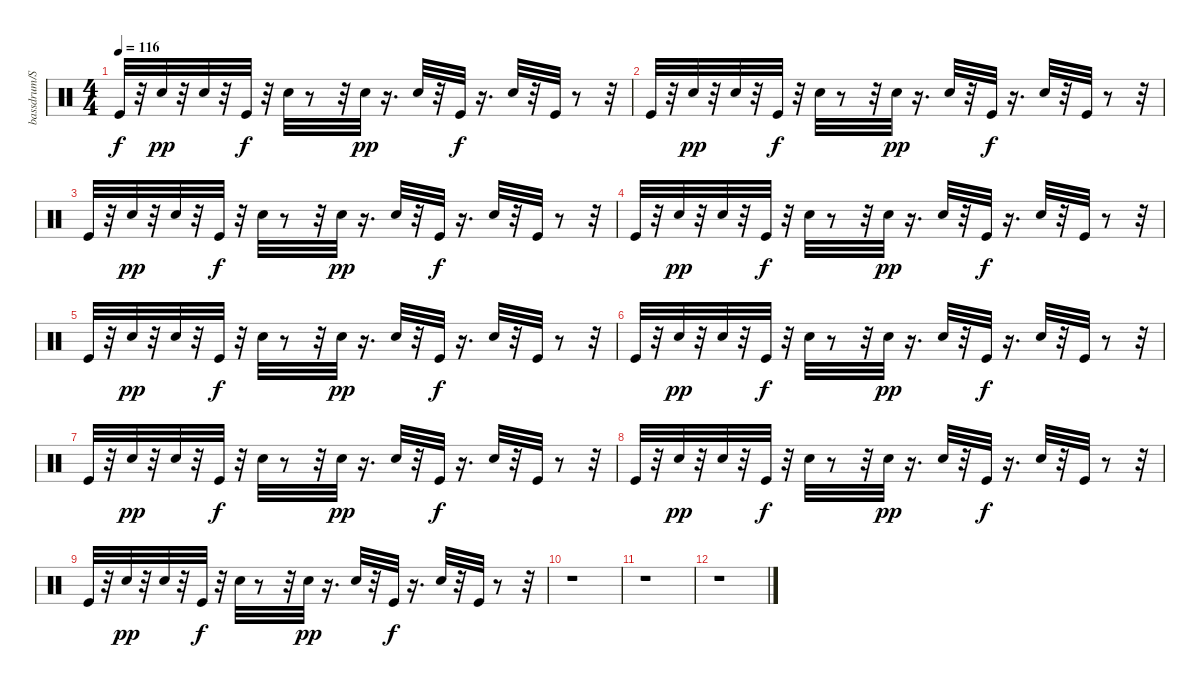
\track ("bassdrum/SD" "bassdrum/S") {instrument percussion}
\staff {score}
\articulation defaults
\ts (4 4)
\tempo 116
\clef neutral
\ks c "Kick (hit)".32{dy f}
r.32 "Snare (hit) 2".32{dy pp} r.32 "Snare (hit) 2".32 r.32 "Kick (hit)".32{dy f} r.32 "Electric Snare (hit)".32 r.8 r.32 "Snare (hit) 2".32{dy pp} r.16{d} "Snare (hit) 2".32 r.32 "Kick (hit)".32{dy f} r.16{d} "Electric Snare (hit)".32 r.32 "Kick (hit)".32 r.8 r.32 |
"Kick (hit)".32 r.32 "Snare (hit) 2".32{dy pp} r.32 "Snare (hit) 2".32 r.32 "Kick (hit)".32{dy f} r.32 "Electric Snare (hit)".32 r.8 r.32 "Snare (hit) 2".32{dy pp} r.16{d} "Snare (hit) 2".32 r.32 "Kick (hit)".32{dy f} r.16{d} "Electric Snare (hit)".32 r.32 "Kick (hit)".32 r.8 r.32 |
"Kick (hit)".32 r.32 "Snare (hit) 2".32{dy pp} r.32 "Snare (hit) 2".32 r.32 "Kick (hit)".32{dy f} r.32 "Electric Snare (hit)".32 r.8 r.32 "Snare (hit) 2".32{dy pp} r.16{d} "Snare (hit) 2".32 r.32 "Kick (hit)".32{dy f} r.16{d} "Electric Snare (hit)".32 r.32 "Kick (hit)".32 r.8 r.32 |
"Kick (hit)".32 r.32 "Snare (hit) 2".32{dy pp} r.32 "Snare (hit) 2".32 r.32 "Kick (hit)".32{dy f} r.32 "Electric Snare (hit)".32 r.8 r.32 "Snare (hit) 2".32{dy pp} r.16{d} "Snare (hit) 2".32 r.32 "Kick (hit)".32{dy f} r.16{d} "Electric Snare (hit)".32 r.32 "Kick (hit)".32 r.8 r.32 |
"Kick (hit)".32 r.32 "Snare (hit) 2".32{dy pp} r.32 "Snare (hit) 2".32 r.32 "Kick (hit)".32{dy f} r.32 "Electric Snare (hit)".32 r.8 r.32 "Snare (hit) 2".32{dy pp} r.16{d} "Snare (hit) 2".32 r.32 "Kick (hit)".32{dy f} r.16{d} "Electric Snare (hit)".32 r.32 "Kick (hit)".32 r.8 r.32 |
"Kick (hit)".32 r.32 "Snare (hit) 2".32{dy pp} r.32 "Snare (hit) 2".32 r.32 "Kick (hit)".32{dy f} r.32 "Electric Snare (hit)".32 r.8 r.32 "Snare (hit) 2".32{dy pp} r.16{d} "Snare (hit) 2".32 r.32 "Kick (hit)".32{dy f} r.16{d} "Electric Snare (hit)".32 r.32 "Kick (hit)".32 r.8 r.32 |
"Kick (hit)".32 r.32 "Snare (hit) 2".32{dy pp} r.32 "Snare (hit) 2".32 r.32 "Kick (hit)".32{dy f} r.32 "Electric Snare (hit)".32 r.8 r.32 "Snare (hit) 2".32{dy pp} r.16{d} "Snare (hit) 2".32 r.32 "Kick (hit)".32{dy f} r.16{d} "Electric Snare (hit)".32 r.32 "Kick (hit)".32 r.8 r.32 |
"Kick (hit)".32 r.32 "Snare (hit) 2".32{dy pp} r.32 "Snare (hit) 2".32 r.32 "Kick (hit)".32{dy f} r.32 "Electric Snare (hit)".32 r.8 r.32 "Snare (hit) 2".32{dy pp} r.16{d} "Snare (hit) 2".32 r.32 "Kick (hit)".32{dy f} r.16{d} "Electric Snare (hit)".32 r.32 "Kick (hit)".32 r.8 r.32 |
"Kick (hit)".32 r.32 "Snare (hit) 2".32{dy pp} r.32 "Snare (hit) 2".32 r.32 "Kick (hit)".32{dy f} r.32 "Electric Snare (hit)".32 r.8 r.32 "Snare (hit) 2".32{dy pp} r.16{d} "Snare (hit) 2".32 r.32 "Kick (hit)".32{dy f} r.16{d} "Electric Snare (hit)".32 r.32 "Kick (hit)".32 r.8 r.32 |
r.1 |
r.1 |
r.1
